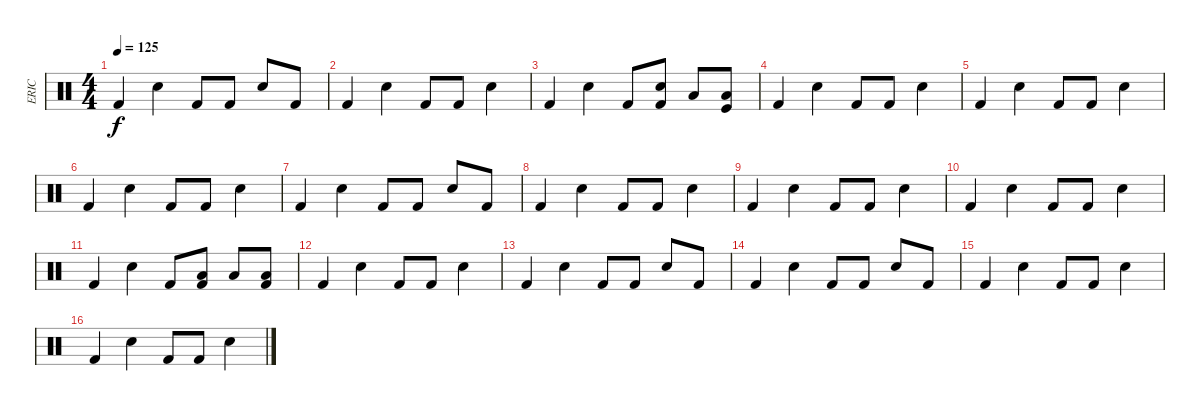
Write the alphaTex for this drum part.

\track ("ERIC" "ERIC") {instrument percussion}
\staff {score}
\articulation defaults
\ts (4 4)
\tempo 125
\clef neutral
\ks c "Kick (hit) 2".4{dy f} "Electric Snare (hit)".4 "Kick (hit) 2".8 "Kick (hit) 2".8 "Electric Snare (hit)".8 "Kick (hit) 2".8
|
"Kick (hit) 2".4 "Electric Snare (hit)".4 "Kick (hit) 2".8 "Kick (hit) 2".8 "Electric Snare (hit)".4 |
"Kick (hit) 2".4 "Electric Snare (hit)".4 "Kick (hit) 2".8 ("Electric Snare (hit)" "Kick (hit) 2").8 "Low Tom (hit)".8 ("Low Floor Tom (hit)" "Kick (hit)").8 |
"Kick (hit) 2".4 "Electric Snare (hit)".4 "Kick (hit) 2".8 "Kick (hit) 2".8 "Electric Snare (hit)".4 |
"Kick (hit) 2".4 "Electric Snare (hit)".4 "Kick (hit) 2".8 "Kick (hit) 2".8 "Electric Snare (hit)".4 |
"Kick (hit) 2".4 "Electric Snare (hit)".4 "Kick (hit) 2".8 "Kick (hit) 2".8 "Electric Snare (hit)".4 |
"Kick (hit) 2".4 "Electric Snare (hit)".4 "Kick (hit) 2".8 "Kick (hit) 2".8 "Electric Snare (hit)".8 "Kick (hit) 2".8 |
"Kick (hit) 2".4 "Electric Snare (hit)".4 "Kick (hit) 2".8 "Kick (hit) 2".8 "Electric Snare (hit)".4 |
"Kick (hit) 2".4 "Electric Snare (hit)".4 "Kick (hit) 2".8 "Kick (hit) 2".8 "Electric Snare (hit)".4 |
"Kick (hit) 2".4 "Electric Snare (hit)".4 "Kick (hit) 2".8 "Kick (hit) 2".8 "Electric Snare (hit)".4 |
"Kick (hit) 2".4 "Electric Snare (hit)".4 "Kick (hit) 2".8 ("Low Floor Tom (hit)" "Kick (hit) 2").8 "Low Floor Tom (hit)".8 ("Low Floor Tom (hit)" "Kick (hit) 2").8 |
"Kick (hit) 2".4 "Electric Snare (hit)".4 "Kick (hit) 2".8 "Kick (hit) 2".8 "Electric Snare (hit)".4 |
"Kick (hit) 2".4 "Electric Snare (hit)".4 "Kick (hit) 2".8 "Kick (hit) 2".8 "Electric Snare (hit)".8 "Kick (hit) 2".8 |
"Kick (hit) 2".4 "Electric Snare (hit)".4 "Kick (hit) 2".8 "Kick (hit) 2".8 "Electric Snare (hit)".8 "Kick (hit) 2".8 |
"Kick (hit) 2".4 "Electric Snare (hit)".4 "Kick (hit) 2".8 "Kick (hit) 2".8 "Electric Snare (hit)".4 |
"Kick (hit) 2".4 "Electric Snare (hit)".4 "Kick (hit) 2".8 "Kick (hit) 2".8 "Electric Snare (hit)".4
